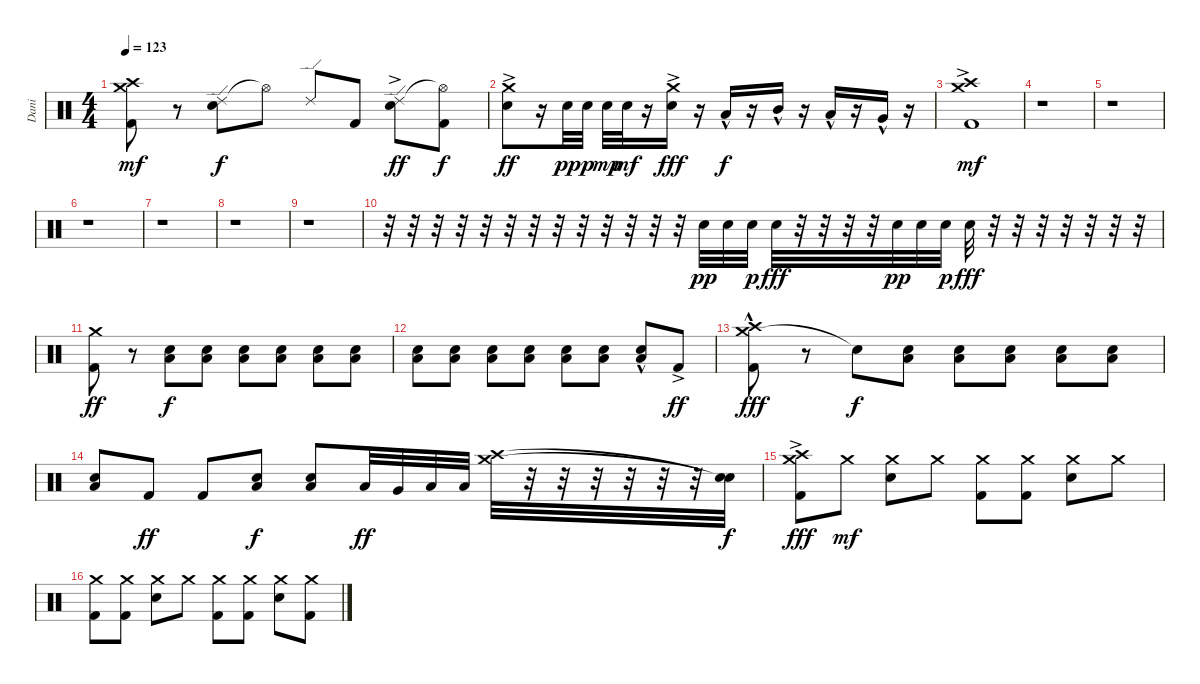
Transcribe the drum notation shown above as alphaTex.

\track ("Dani" "Dani") {instrument percussion}
\staff {score}
\articulation defaults
\ts (4 4)
\tempo 123
\clef neutral
\ks c
("Crash high (hit)" "Crash medium (hit)" "Kick (hit) 2").8{dy mf} r.8 ("Ride (edge) 2" "Snare (hit) 2").8{dy f} "Hi-Hat (open)"{t}.8 "Ride (edge) 2".8 "Kick (hit) 2".8 ("Ride (edge) 2" "Snare (hit) 2"{ac}).8{dy ff} ("Hi-Hat (open)"{t} "Kick (hit) 2").8{dy f} |
("Crash medium (hit)"{ac} "Snare (hit) 2"{ac}).8{dy ff} r.16 "Snare (hit) 2".32{dy pp} "Snare (hit) 2".32{dy p} "Snare (hit) 2".32{dy mp} "Snare (hit) 2".32{dy mf} r.16 ("Crash medium (hit)"{ac} "Snare (hit) 2"{ac}).16{dy fff} r.16 "Low Floor Tom (hit)"{hac}.16{dy f} r.16 "Mid Tom (hit)"{hac}.16 r.16 "Low Tom (hit)"{hac}.16 r.16 "Very Low Tom (hit)"{hac}.16 r.16 |
("Crash medium (hit)" "Crash high (hit)" "Kick (hit) 2"{ac}).1{dy mf} |
r.1 |
r.1 |
r.1 |
r.1 |
r.1 |
r.1 |
r.32 r.32 r.32 r.32 r.32 r.32 r.32 r.32 r.32 r.32 r.32 r.32 r.32 "Snare (hit) 2".32{dy pp} "Snare (hit) 2".32 "Snare (hit) 2".32{dy p} "Snare (hit) 2".32{dy fff} r.32 r.32 r.32 r.32 "Snare (hit) 2".32{dy pp} "Snare (hit) 2".32 "Snare (hit) 2".32{dy p} "Snare (hit) 2".32{dy fff} r.32 r.32 r.32 r.32 r.32 r.32 r.32 |
("Crash medium (hit)" "Kick (hit) 2").8{dy ff} r.8 ("Low Floor Tom (hit)" "Snare (hit) 2").8{dy f volume 5} ("Low Floor Tom (hit)" "Snare (hit) 2").8{volume 7} ("Low Floor Tom (hit)" "Snare (hit) 2").8{volume 9} ("Low Floor Tom (hit)" "Snare (hit) 2").8{volume 11} ("Low Floor Tom (hit)" "Snare (hit) 2").8{volume 13} ("Low Floor Tom (hit)" "Snare (hit) 2").8 |
("Low Floor Tom (hit)" "Snare (hit) 2").8 ("Low Floor Tom (hit)" "Snare (hit) 2").8 ("Low Floor Tom (hit)" "Snare (hit) 2").8 ("Low Floor Tom (hit)" "Snare (hit) 2").8 ("Low Floor Tom (hit)" "Snare (hit) 2").8 ("Low Floor Tom (hit)" "Snare (hit) 2").8 ("Low Floor Tom (hit)"{hac} "Snare (hit) 2"{hac}).8 "Kick (hit) 2"{ac}.8{dy ff} |
("Crash medium (hit)" "Crash high (hit)" "Kick (hit) 2"{hac}).8{dy fff} r.8 "Snare (hit)"{t}.8{dy f} ("Low Floor Tom (hit)" "Snare (hit) 2").8{volume 7} ("Low Floor Tom (hit)" "Snare (hit) 2").8{volume 9} ("Low Floor Tom (hit)" "Snare (hit) 2").8{volume 11} ("Low Floor Tom (hit)" "Snare (hit) 2").8{volume 13} ("Low Floor Tom (hit)" "Snare (hit) 2").8 |
("Low Floor Tom (hit)" "Snare (hit) 2").8 "Kick (hit) 2".8{dy ff} "Kick (hit) 2".8 ("Low Floor Tom (hit)" "Snare (hit) 2").8{dy f} ("Low Floor Tom (hit)" "Snare (hit) 2").8 "Low Tom (hit)".32{dy ff} "Very Low Tom (hit)".32 "Low Floor Tom (hit)".32 "Low Floor Tom (hit)".32 ("Crash medium (hit)" "Crash high (hit)").32{volume 3} r.32{volume 3} r.32{volume 5} r.32{volume 7} r.32{volume 9} r.32{volume 11} r.32{volume 13} ("Snare (hit)"{t} "Snare (hit)"{t}).32{dy f volume 15} |
("Crash high (hit)"{ac} "Crash medium (hit)" "Kick (hit) 2"{ac}).8{dy fff} "Crash medium (hit)".8{dy mf} ("Crash medium (hit)" "Snare (hit) 2").8 "Crash medium (hit)".8 ("Crash medium (hit)" "Kick (hit) 2").8 ("Crash medium (hit)" "Kick (hit) 2").8 ("Crash medium (hit)" "Snare (hit) 2").8 "Crash medium (hit)".8 |
("Crash medium (hit)" "Kick (hit) 2").8 ("Crash medium (hit)" "Kick (hit) 2").8 ("Crash medium (hit)" "Snare (hit) 2").8 "Crash medium (hit)".8 ("Crash medium (hit)" "Kick (hit) 2").8 ("Crash medium (hit)" "Kick (hit) 2").8 ("Crash medium (hit)" "Snare (hit) 2").8 ("Crash medium (hit)" "Kick (hit) 2").8
